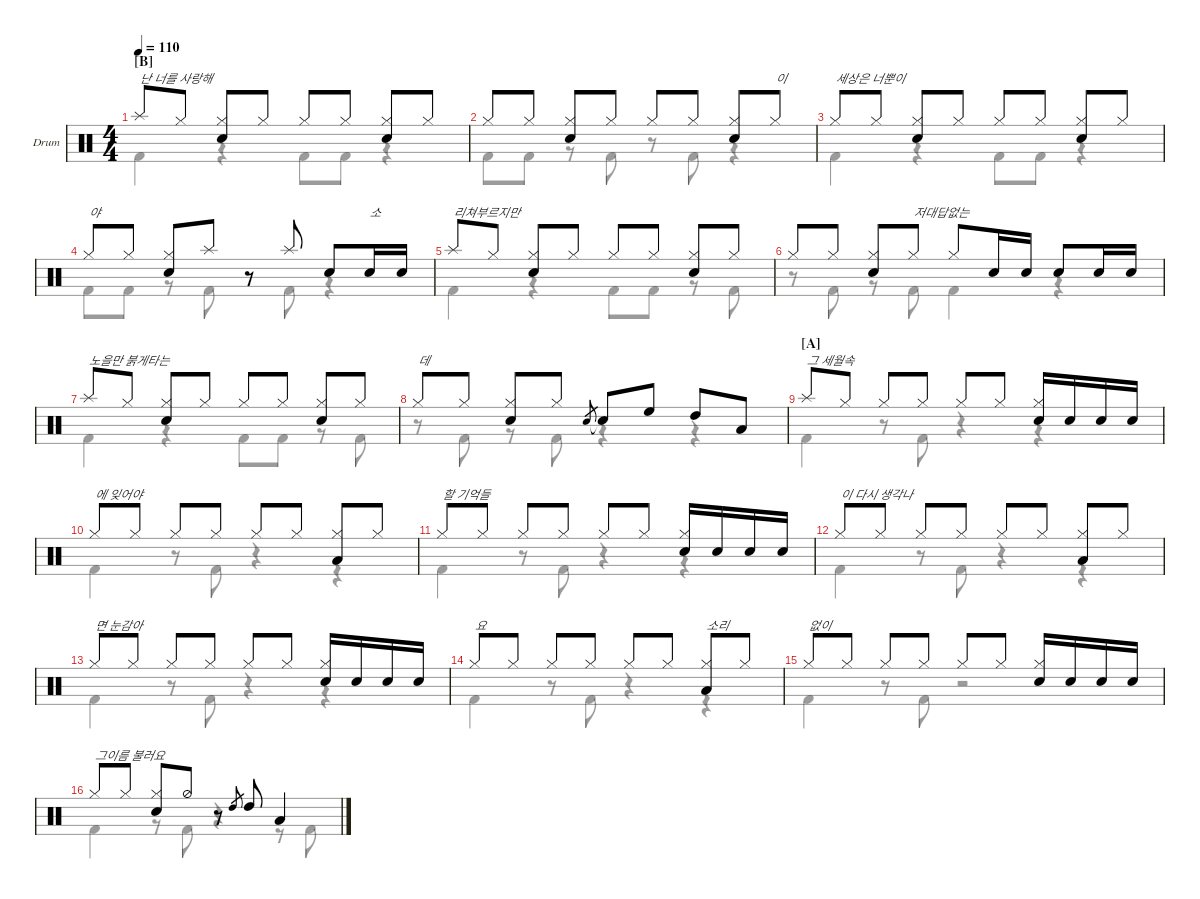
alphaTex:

\defaultSystemsLayout 4
\hideDynamics
\bracketExtendMode nobrackets
\firstSystemTrackNameOrientation horizontal
\track ("Drumkit" "Drum") {instrument percussion}
\staff {score}
\articulation defaults
\voice
\ts (4 4)
\section ("B" "")
\tempo 110
\clef neutral
\ks c "Splash (hit)".8{txt "난 너를 사랑해" dy mf beam Up} "Hi-Hat (closed)".8{beam Up}
("Hi-Hat (closed)" "Snare (hit) 2").8{beam Up} "Hi-Hat (closed)".8{beam Up} "Hi-Hat (closed)".8{beam Up} "Hi-Hat (closed)".8{beam Up} ("Hi-Hat (closed)" "Snare (hit) 2").8{beam Up} "Hi-Hat (closed)".8{beam Up} |
"Hi-Hat (closed)".8{beam Up} "Hi-Hat (closed)".8{beam Up} ("Hi-Hat (closed)" "Snare (hit) 2").8{beam Up} "Hi-Hat (closed)".8{beam Up} "Hi-Hat (closed)".8{beam Up} "Hi-Hat (closed)".8{beam Up} ("Hi-Hat (closed)" "Snare (hit) 2").8{beam Up} "Hi-Hat (closed)".8{txt "이" beam Up} |
"Hi-Hat (closed)".8{txt "세상은 너뿐이" beam Up} "Hi-Hat (closed)".8{beam Up} ("Hi-Hat (closed)" "Snare (hit) 2").8{beam Up} "Hi-Hat (closed)".8{beam Up} "Hi-Hat (closed)".8{beam Up} "Hi-Hat (closed)".8{beam Up} ("Hi-Hat (closed)" "Snare (hit) 2").8{beam Up} "Hi-Hat (closed)".8{beam Up} |
"Hi-Hat (closed)".8{txt "야" beam Up} "Hi-Hat (closed)".8{beam Up} ("Hi-Hat (closed)" "Snare (hit) 2").8{beam Up} "Splash (hit)".8{beam Up} r.8{beam Up} "Splash (hit)".8{beam Up} "Snare (hit) 2".8{beam Up} "Snare (hit) 2".16{txt "소" beam Up} "Snare (hit) 2".16{beam Up} |
"Splash (hit)".8{txt "리쳐부르지만" beam Up} "Hi-Hat (closed)".8{beam Up} ("Hi-Hat (closed)" "Snare (hit) 2").8{beam Up} "Hi-Hat (closed)".8{beam Up} "Hi-Hat (closed)".8{beam Up} "Hi-Hat (closed)".8{beam Up} ("Hi-Hat (closed)" "Snare (hit) 2").8{beam Up} "Hi-Hat (closed)".8{beam Up} |
"Hi-Hat (closed)".8{beam Up} "Hi-Hat (closed)".8{beam Up} ("Hi-Hat (closed)" "Snare (hit) 2").8{beam Up} "Hi-Hat (closed)".8{txt "저대답없는" beam Up} "Hi-Hat (closed)".8{beam Up} "Snare (hit) 2".16{beam Up} "Snare (hit) 2".16{beam Up} "Snare (hit) 2".8{beam Up} "Snare (hit) 2".16{beam Up} "Snare (hit) 2".16{beam Up} |
"Splash (hit)".8{txt "노을만 붉게타는" beam Up} "Hi-Hat (closed)".8{beam Up} ("Hi-Hat (closed)" "Snare (hit) 2").8{beam Up} "Hi-Hat (closed)".8{beam Up} "Hi-Hat (closed)".8{beam Up} "Hi-Hat (closed)".8{beam Up} ("Hi-Hat (closed)" "Snare (hit) 2").8{beam Up} "Hi-Hat (closed)".8{beam Up} |
"Hi-Hat (closed)".8{txt "데" beam Up} "Hi-Hat (closed)".8{beam Up} ("Hi-Hat (closed)" "Snare (hit) 2").8{beam Up} "Hi-Hat (closed)".8{beam Up} "Snare (hit) 2".8{gr beam Up} "Snare (hit) 2"{t}.8{beam Up} "High Floor Tom (hit)".8{beam Up} "High Tom (hit)".8{beam Up} "Low Tom (hit)".8{beam Up} |
\section ("A" "")
"Splash (hit)".8{txt "그 세월속" beam Up} "Hi-Hat (closed)".8{beam Up} "Hi-Hat (closed)".8{beam Up} "Hi-Hat (closed)".8{beam Up} "Hi-Hat (closed)".8{beam Up} "Hi-Hat (closed)".8{beam Up} ("Hi-Hat (closed)" "Snare (hit) 2").16{beam Up} "Snare (hit) 2".16{beam Up} "Snare (hit) 2".16{beam Up} "Snare (hit) 2".16{beam Up} |
"Hi-Hat (closed)".8{txt "에 잊어야" beam Up} "Hi-Hat (closed)".8{beam Up} "Hi-Hat (closed)".8{beam Up} "Hi-Hat (closed)".8{beam Up} "Hi-Hat (closed)".8{beam Up} "Hi-Hat (closed)".8{beam Up} ("Hi-Hat (closed)" "Low Tom (hit)").8{beam Up} "Hi-Hat (closed)".8{beam Up} |
"Hi-Hat (closed)".8{txt "할 기억들" beam Up} "Hi-Hat (closed)".8{beam Up} "Hi-Hat (closed)".8{beam Up} "Hi-Hat (closed)".8{beam Up} "Hi-Hat (closed)".8{beam Up} "Hi-Hat (closed)".8{beam Up} ("Hi-Hat (closed)" "Snare (hit) 2").16{beam Up} "Snare (hit) 2".16{beam Up} "Snare (hit) 2".16{beam Up} "Snare (hit) 2".16{beam Up} |
"Hi-Hat (closed)".8{txt "이 다시 생각나" beam Up} "Hi-Hat (closed)".8{beam Up} "Hi-Hat (closed)".8{beam Up} "Hi-Hat (closed)".8{beam Up} "Hi-Hat (closed)".8{beam Up} "Hi-Hat (closed)".8{beam Up} ("Hi-Hat (closed)" "Low Tom (hit)").8{beam Up} "Hi-Hat (closed)".8{beam Up} |
"Hi-Hat (closed)".8{txt "면 눈감아" beam Up} "Hi-Hat (closed)".8{beam Up} "Hi-Hat (closed)".8{beam Up} "Hi-Hat (closed)".8{beam Up} "Hi-Hat (closed)".8{beam Up} "Hi-Hat (closed)".8{beam Up} ("Hi-Hat (closed)" "Snare (hit) 2").16{beam Up} "Snare (hit) 2".16{beam Up} "Snare (hit) 2".16{beam Up} "Snare (hit) 2".16{beam Up} |
"Hi-Hat (closed)".8{txt "요 " beam Up} "Hi-Hat (closed)".8{beam Up} "Hi-Hat (closed)".8{beam Up} "Hi-Hat (closed)".8{beam Up} "Hi-Hat (closed)".8{beam Up} "Hi-Hat (closed)".8{beam Up} ("Hi-Hat (closed)" "Low Tom (hit)").8{txt "소리" beam Up} "Hi-Hat (closed)".8{beam Up} |
"Hi-Hat (closed)".8{txt "없이" beam Up} "Hi-Hat (closed)".8{beam Up} "Hi-Hat (closed)".8{beam Up} "Hi-Hat (closed)".8{beam Up} "Hi-Hat (closed)".8{beam Up} "Hi-Hat (closed)".8{beam Up} ("Hi-Hat (closed)" "Snare (hit) 2").16{beam Up} "Snare (hit) 2".16{beam Up} "Snare (hit) 2".16{beam Up} "Snare (hit) 2".16{beam Up} |
"Hi-Hat (closed)".8{txt "그이름 불러요" beam Up} "Hi-Hat (closed)".8{beam Up} ("Hi-Hat (closed)" "Snare (hit) 2").8{beam Up} "Hi-Hat (half)".8{beam Up} r.8{beam Up} "High Tom (hit)".8{gr beam Up} "High Tom (hit)".8{beam Up} "Low Tom (hit)".4{beam Up}
\voice
\clef neutral
\ottava regular
\simile none
\ks c
|
|
|
|
|
|
|
|
|
|
|
|
|
|
|
\voice
\clef neutral
\ottava regular
\simile none
\ks c "Kick (hit) 2".4{dy mf beam Down}
r.4{beam Down} "Kick (hit) 2".8{beam Down} "Kick (hit) 2".8{beam Down} r.4{beam Down} |
"Kick (hit) 2".8{beam Down} "Kick (hit) 2".8{beam Down} r.8{beam Down} "Kick (hit) 2".8{beam Down} r.8{beam Down} "Kick (hit) 2".8{beam Down} r.4{beam Down} |
"Kick (hit) 2".4{beam Down} r.4{beam Down} "Kick (hit) 2".8{beam Down} "Kick (hit) 2".8{beam Down} r.4{beam Down} |
"Kick (hit) 2".8{beam Down} "Kick (hit) 2".8{beam Down} r.8{beam Down} "Kick (hit) 2".8{beam Down} r.8{beam Down} "Kick (hit) 2".8{beam Down} r.4{beam Down} |
"Kick (hit) 2".4{beam Down} r.4{beam Down} "Kick (hit) 2".8{beam Down} "Kick (hit) 2".8{beam Down} r.8{beam Down} "Kick (hit) 2".8{beam Down} |
r.8{beam Down} "Kick (hit) 2".8{beam Down} r.8{beam Down} "Kick (hit) 2".8{beam Down} "Kick (hit) 2".4{beam Down} r.4{beam Down} |
"Kick (hit) 2".4{beam Down} r.4{beam Down} "Kick (hit) 2".8{beam Down} "Kick (hit) 2".8{beam Down} r.8{beam Down} "Kick (hit) 2".8{beam Down} |
r.8{beam Down} "Kick (hit) 2".8{beam Down} r.8{beam Down} "Kick (hit) 2".8{beam Down} r.4{beam Down} r.4{beam Down} |
"Kick (hit) 2".4{beam Down} r.8{beam Down} "Kick (hit) 2".8{beam Down} r.4{beam Down} r.4{beam Down} |
"Kick (hit) 2".4{beam Down} r.8{beam Down} "Kick (hit) 2".8{beam Down} r.4{beam Down} r.4{beam Down} |
"Kick (hit) 2".4{beam Down} r.8{beam Down} "Kick (hit) 2".8{beam Down} r.4{beam Down} r.4{beam Down} |
"Kick (hit) 2".4{beam Down} r.8{beam Down} "Kick (hit) 2".8{beam Down} r.4{beam Down} r.4{beam Down} |
"Kick (hit) 2".4{beam Down} r.8{beam Down} "Kick (hit) 2".8{beam Down} r.4{beam Down} r.4{beam Down} |
"Kick (hit) 2".4{beam Down} r.8{beam Down} "Kick (hit) 2".8{beam Down} r.4{beam Down} r.4{beam Down} |
"Kick (hit) 2".4{beam Down} r.8{beam Down} "Kick (hit) 2".8{beam Down} r.2{beam Down} |
"Kick (hit) 2".4{beam Down} r.8{beam Down} "Kick (hit) 2".8{beam Down} r.4{beam Down} r.8{beam Down} "Kick (hit) 2".8{beam Down}
